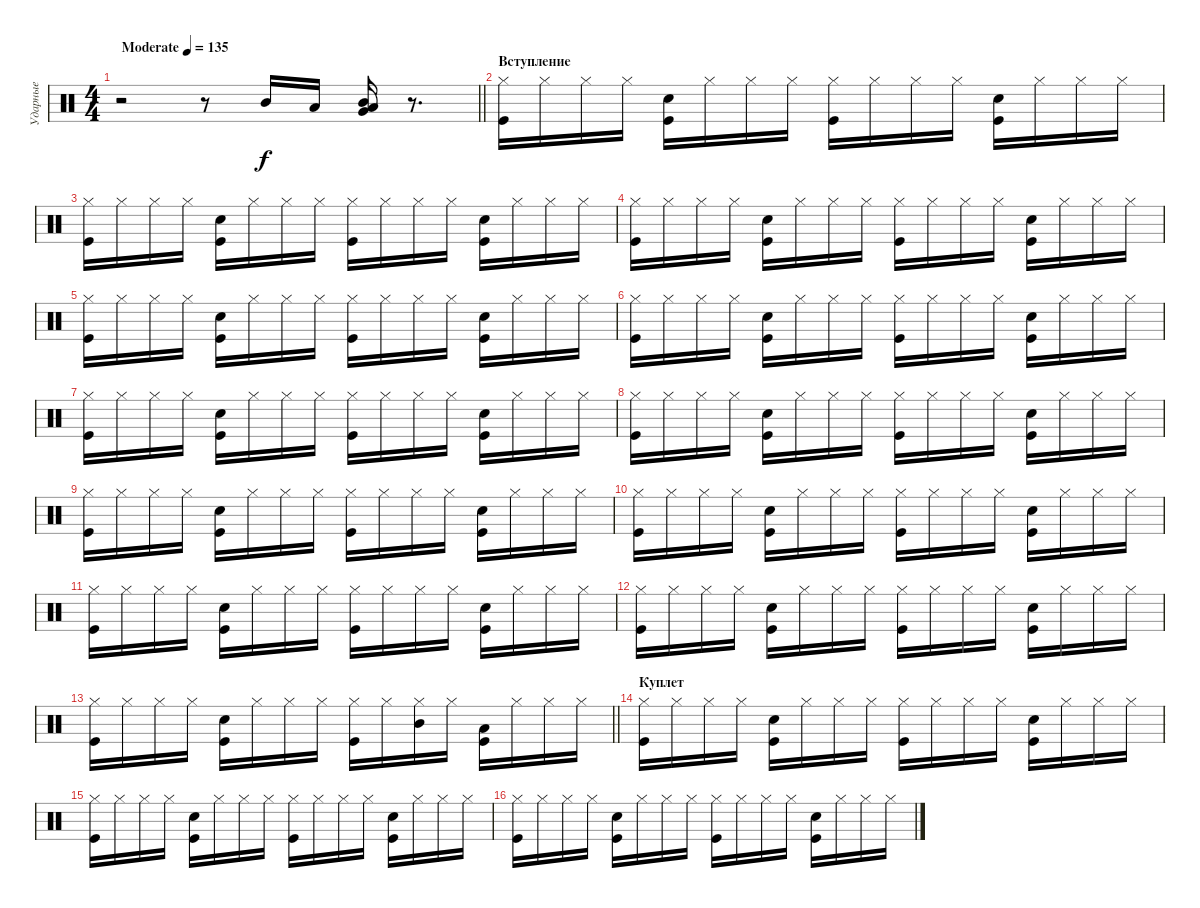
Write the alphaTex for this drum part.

\track ("Ударные" "Ударные") {instrument percussion}
\staff {score}
\articulation defaults
\ts (4 4)
\tempo (135 "Moderate")
\clef neutral
\barLineRight lightlight
\ks c
r.2{dy f} r.8 "Mid Tom (hit)".16 "Low Tom (hit)".16 ("Very Low Tom (hit)" "Low Tom (hit)" "Mid Tom (hit)").16 r.8{d} |
\section ("" "Вступление")
("Hi-Hat (closed)" "Kick (hit)").16 "Hi-Hat (closed)".16 "Hi-Hat (closed)".16 "Hi-Hat (closed)".16 ("Kick (hit)" "Snare (hit) 2").16 "Hi-Hat (closed)".16 "Hi-Hat (closed)".16 "Hi-Hat (closed)".16 ("Hi-Hat (closed)" "Kick (hit)").16 "Hi-Hat (closed)".16 "Hi-Hat (closed)".16 "Hi-Hat (closed)".16 ("Kick (hit)" "Snare (hit) 2").16 "Hi-Hat (closed)".16 "Hi-Hat (closed)".16 "Hi-Hat (closed)".16 |
("Hi-Hat (closed)" "Kick (hit)").16 "Hi-Hat (closed)".16 "Hi-Hat (closed)".16 "Hi-Hat (closed)".16 ("Kick (hit)" "Snare (hit) 2").16 "Hi-Hat (closed)".16 "Hi-Hat (closed)".16 "Hi-Hat (closed)".16 ("Hi-Hat (closed)" "Kick (hit)").16 "Hi-Hat (closed)".16 "Hi-Hat (closed)".16 "Hi-Hat (closed)".16 ("Kick (hit)" "Snare (hit) 2").16 "Hi-Hat (closed)".16 "Hi-Hat (closed)".16 "Hi-Hat (closed)".16 |
("Hi-Hat (closed)" "Kick (hit)").16 "Hi-Hat (closed)".16 "Hi-Hat (closed)".16 "Hi-Hat (closed)".16 ("Kick (hit)" "Snare (hit) 2").16 "Hi-Hat (closed)".16 "Hi-Hat (closed)".16 "Hi-Hat (closed)".16 ("Hi-Hat (closed)" "Kick (hit)").16 "Hi-Hat (closed)".16 "Hi-Hat (closed)".16 "Hi-Hat (closed)".16 ("Kick (hit)" "Snare (hit) 2").16 "Hi-Hat (closed)".16 "Hi-Hat (closed)".16 "Hi-Hat (closed)".16 |
("Hi-Hat (closed)" "Kick (hit)").16 "Hi-Hat (closed)".16 "Hi-Hat (closed)".16 "Hi-Hat (closed)".16 ("Kick (hit)" "Snare (hit) 2").16 "Hi-Hat (closed)".16 "Hi-Hat (closed)".16 "Hi-Hat (closed)".16 ("Hi-Hat (closed)" "Kick (hit)").16 "Hi-Hat (closed)".16 "Hi-Hat (closed)".16 "Hi-Hat (closed)".16 ("Kick (hit)" "Snare (hit) 2").16 "Hi-Hat (closed)".16 "Hi-Hat (closed)".16 "Hi-Hat (closed)".16 |
("Hi-Hat (closed)" "Kick (hit)").16 "Hi-Hat (closed)".16 "Hi-Hat (closed)".16 "Hi-Hat (closed)".16 ("Kick (hit)" "Snare (hit) 2").16 "Hi-Hat (closed)".16 "Hi-Hat (closed)".16 "Hi-Hat (closed)".16 ("Hi-Hat (closed)" "Kick (hit)").16 "Hi-Hat (closed)".16 "Hi-Hat (closed)".16 "Hi-Hat (closed)".16 ("Kick (hit)" "Snare (hit) 2").16 "Hi-Hat (closed)".16 "Hi-Hat (closed)".16 "Hi-Hat (closed)".16 |
("Hi-Hat (closed)" "Kick (hit)").16 "Hi-Hat (closed)".16 "Hi-Hat (closed)".16 "Hi-Hat (closed)".16 ("Kick (hit)" "Snare (hit) 2").16 "Hi-Hat (closed)".16 "Hi-Hat (closed)".16 "Hi-Hat (closed)".16 ("Hi-Hat (closed)" "Kick (hit)").16 "Hi-Hat (closed)".16 "Hi-Hat (closed)".16 "Hi-Hat (closed)".16 ("Kick (hit)" "Snare (hit) 2").16 "Hi-Hat (closed)".16 "Hi-Hat (closed)".16 "Hi-Hat (closed)".16 |
("Hi-Hat (closed)" "Kick (hit)").16 "Hi-Hat (closed)".16 "Hi-Hat (closed)".16 "Hi-Hat (closed)".16 ("Kick (hit)" "Snare (hit) 2").16 "Hi-Hat (closed)".16 "Hi-Hat (closed)".16 "Hi-Hat (closed)".16 ("Hi-Hat (closed)" "Kick (hit)").16 "Hi-Hat (closed)".16 "Hi-Hat (closed)".16 "Hi-Hat (closed)".16 ("Kick (hit)" "Snare (hit) 2").16 "Hi-Hat (closed)".16 "Hi-Hat (closed)".16 "Hi-Hat (closed)".16 |
("Hi-Hat (closed)" "Kick (hit)").16 "Hi-Hat (closed)".16 "Hi-Hat (closed)".16 "Hi-Hat (closed)".16 ("Kick (hit)" "Snare (hit) 2").16 "Hi-Hat (closed)".16 "Hi-Hat (closed)".16 "Hi-Hat (closed)".16 ("Hi-Hat (closed)" "Kick (hit)").16 "Hi-Hat (closed)".16 "Hi-Hat (closed)".16 "Hi-Hat (closed)".16 ("Kick (hit)" "Snare (hit) 2").16 "Hi-Hat (closed)".16 "Hi-Hat (closed)".16 "Hi-Hat (closed)".16 |
("Hi-Hat (closed)" "Kick (hit)").16 "Hi-Hat (closed)".16 "Hi-Hat (closed)".16 "Hi-Hat (closed)".16 ("Kick (hit)" "Snare (hit) 2").16 "Hi-Hat (closed)".16 "Hi-Hat (closed)".16 "Hi-Hat (closed)".16 ("Hi-Hat (closed)" "Kick (hit)").16 "Hi-Hat (closed)".16 "Hi-Hat (closed)".16 "Hi-Hat (closed)".16 ("Kick (hit)" "Snare (hit) 2").16 "Hi-Hat (closed)".16 "Hi-Hat (closed)".16 "Hi-Hat (closed)".16 |
("Hi-Hat (closed)" "Kick (hit)").16 "Hi-Hat (closed)".16 "Hi-Hat (closed)".16 "Hi-Hat (closed)".16 ("Kick (hit)" "Snare (hit) 2").16 "Hi-Hat (closed)".16 "Hi-Hat (closed)".16 "Hi-Hat (closed)".16 ("Hi-Hat (closed)" "Kick (hit)").16 "Hi-Hat (closed)".16 "Hi-Hat (closed)".16 "Hi-Hat (closed)".16 ("Kick (hit)" "Snare (hit) 2").16 "Hi-Hat (closed)".16 "Hi-Hat (closed)".16 "Hi-Hat (closed)".16 |
("Hi-Hat (closed)" "Kick (hit)").16 "Hi-Hat (closed)".16 "Hi-Hat (closed)".16 "Hi-Hat (closed)".16 ("Kick (hit)" "Snare (hit) 2").16 "Hi-Hat (closed)".16 "Hi-Hat (closed)".16 "Hi-Hat (closed)".16 ("Hi-Hat (closed)" "Kick (hit)").16 "Hi-Hat (closed)".16 "Hi-Hat (closed)".16 "Hi-Hat (closed)".16 ("Kick (hit)" "Snare (hit) 2").16 "Hi-Hat (closed)".16 "Hi-Hat (closed)".16 "Hi-Hat (closed)".16 |
\barLineRight lightlight
("Hi-Hat (closed)" "Kick (hit)").16 "Hi-Hat (closed)".16 "Hi-Hat (closed)".16 "Hi-Hat (closed)".16 ("Kick (hit)" "Snare (hit) 2").16 "Hi-Hat (closed)".16 "Hi-Hat (closed)".16 "Hi-Hat (closed)".16 ("Hi-Hat (closed)" "Kick (hit)").16 "Hi-Hat (closed)".16 ("Hi-Hat (closed)" "Mid Tom (hit)").16 "Hi-Hat (closed)".16 ("Kick (hit)" "Low Tom (hit)").16 "Hi-Hat (closed)".16 "Hi-Hat (closed)".16 "Hi-Hat (closed)".16 |
\section ("" "Куплет")
("Hi-Hat (closed)" "Kick (hit)").16 "Hi-Hat (closed)".16 "Hi-Hat (closed)".16 "Hi-Hat (closed)".16 ("Kick (hit)" "Snare (hit) 2").16 "Hi-Hat (closed)".16 "Hi-Hat (closed)".16 "Hi-Hat (closed)".16 ("Hi-Hat (closed)" "Kick (hit)").16 "Hi-Hat (closed)".16 "Hi-Hat (closed)".16 "Hi-Hat (closed)".16 ("Kick (hit)" "Snare (hit) 2").16 "Hi-Hat (closed)".16 "Hi-Hat (closed)".16 "Hi-Hat (closed)".16 |
("Hi-Hat (closed)" "Kick (hit)").16 "Hi-Hat (closed)".16 "Hi-Hat (closed)".16 "Hi-Hat (closed)".16 ("Kick (hit)" "Snare (hit) 2").16 "Hi-Hat (closed)".16 "Hi-Hat (closed)".16 "Hi-Hat (closed)".16 ("Hi-Hat (closed)" "Kick (hit)").16 "Hi-Hat (closed)".16 "Hi-Hat (closed)".16 "Hi-Hat (closed)".16 ("Kick (hit)" "Snare (hit) 2").16 "Hi-Hat (closed)".16 "Hi-Hat (closed)".16 "Hi-Hat (closed)".16 |
("Hi-Hat (closed)" "Kick (hit)").16 "Hi-Hat (closed)".16 "Hi-Hat (closed)".16 "Hi-Hat (closed)".16 ("Kick (hit)" "Snare (hit) 2").16 "Hi-Hat (closed)".16 "Hi-Hat (closed)".16 "Hi-Hat (closed)".16 ("Hi-Hat (closed)" "Kick (hit)").16 "Hi-Hat (closed)".16 "Hi-Hat (closed)".16 "Hi-Hat (closed)".16 ("Kick (hit)" "Snare (hit) 2").16 "Hi-Hat (closed)".16 "Hi-Hat (closed)".16 "Hi-Hat (closed)".16
